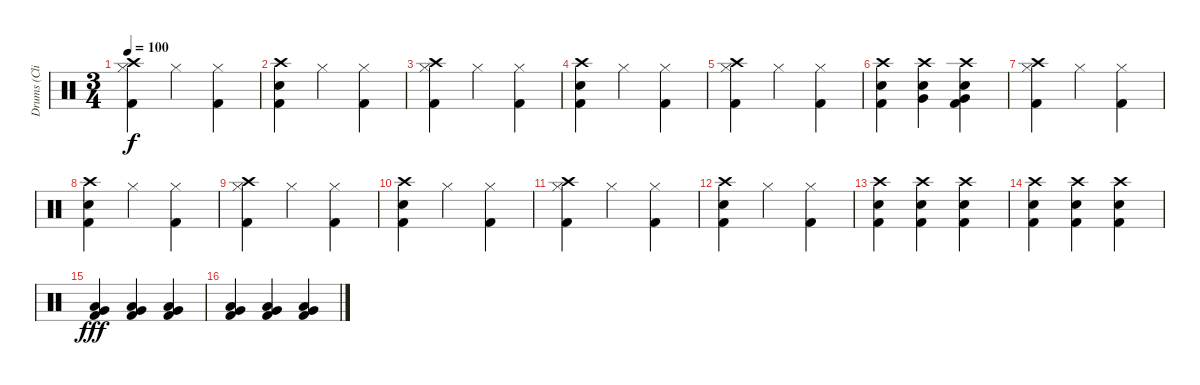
\track ("Drums (Clive Bunker)" "Drums (Cli") {instrument percussion}
\staff {score}
\articulation defaults
\ts (3 4)
\tempo 100
\clef neutral
\ks c
("Crash high (hit)" "Hi-Hat (closed)" "Kick (hit) 2").4{dy f} "Hi-Hat (closed)".4 ("Hi-Hat (closed)" "Kick (hit) 2").4 |
("Crash high (hit)" "Snare (hit) 2" "Kick (hit) 2").4 "Hi-Hat (closed)".4 ("Hi-Hat (closed)" "Kick (hit) 2").4 |
("Crash high (hit)" "Hi-Hat (closed)" "Kick (hit) 2").4 "Hi-Hat (closed)".4 ("Hi-Hat (closed)" "Kick (hit) 2").4 |
("Crash high (hit)" "Snare (hit) 2" "Kick (hit) 2").4 "Hi-Hat (closed)".4 ("Hi-Hat (closed)" "Kick (hit) 2").4 |
("Crash high (hit)" "Hi-Hat (closed)" "Kick (hit) 2").4 "Hi-Hat (closed)".4 ("Hi-Hat (closed)" "Kick (hit) 2").4 |
("Crash high (hit)" "Snare (hit) 2" "Kick (hit) 2").4 ("Crash high (hit)" "Snare (hit) 2" "Very Low Tom (hit)").4 ("Crash high (hit)" "Snare (hit) 2" "Very Low Tom (hit)" "Kick (hit) 2").4 |
("Crash high (hit)" "Hi-Hat (closed)" "Kick (hit) 2").4 "Hi-Hat (closed)".4 ("Hi-Hat (closed)" "Kick (hit) 2").4 |
("Crash high (hit)" "Snare (hit) 2" "Kick (hit) 2").4 "Hi-Hat (closed)".4 ("Hi-Hat (closed)" "Kick (hit) 2").4 |
("Crash high (hit)" "Hi-Hat (closed)" "Kick (hit) 2").4 "Hi-Hat (closed)".4 ("Hi-Hat (closed)" "Kick (hit) 2").4 |
("Crash high (hit)" "Snare (hit) 2" "Kick (hit) 2").4 "Hi-Hat (closed)".4 ("Hi-Hat (closed)" "Kick (hit) 2").4 |
("Crash high (hit)" "Hi-Hat (closed)" "Kick (hit) 2").4 "Hi-Hat (closed)".4 ("Hi-Hat (closed)" "Kick (hit) 2").4 |
("Crash high (hit)" "Snare (hit) 2" "Kick (hit) 2").4 "Hi-Hat (closed)".4 ("Hi-Hat (closed)" "Kick (hit) 2").4 |
("Crash high (hit)" "Snare (hit) 2" "Kick (hit) 2").4 ("Crash high (hit)" "Snare (hit) 2" "Kick (hit) 2").4 ("Crash high (hit)" "Snare (hit) 2" "Kick (hit) 2").4 |
("Crash high (hit)" "Snare (hit) 2" "Kick (hit) 2").4 ("Crash high (hit)" "Snare (hit) 2" "Kick (hit) 2").4 ("Crash high (hit)" "Snare (hit) 2" "Kick (hit) 2").4 |
("Low Tom (hit)" "Very Low Tom (hit)" "Kick (hit) 2").4{dy fff} ("Low Tom (hit)" "Very Low Tom (hit)" "Kick (hit) 2").4 ("Low Tom (hit)" "Very Low Tom (hit)" "Kick (hit) 2").4 |
("Low Tom (hit)" "Very Low Tom (hit)" "Kick (hit) 2").4 ("Low Tom (hit)" "Very Low Tom (hit)" "Kick (hit) 2").4 ("Low Tom (hit)" "Very Low Tom (hit)" "Kick (hit) 2").4
